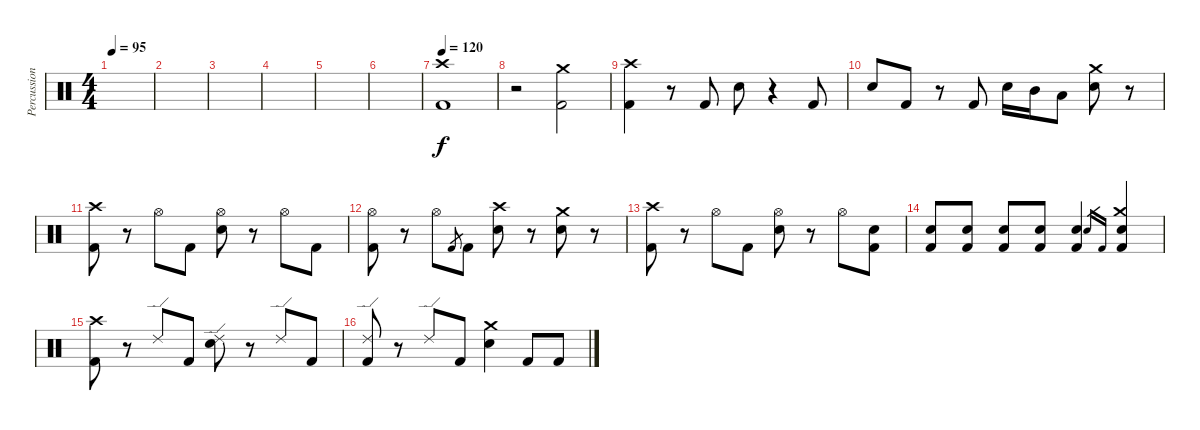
\track ("Percussion" "Percussion") {instrument percussion}
\staff {score}
\articulation defaults
\ts (4 4)
\tempo 95
\clef neutral
\ks c
|
|
|
|
|
|
\tempo 120
("Crash high (hit)" "Kick (hit) 2").1 |
r.2 ("Crash medium (hit)" "Kick (hit) 2").2 |
("Crash high (hit)" "Kick (hit) 2").4 r.8 "Kick (hit) 2".8 "Snare (hit) 2".8 r.4 "Kick (hit) 2".8 |
"Snare (hit) 2".8 "Kick (hit) 2".8 r.8 "Kick (hit) 2".8 "Snare (hit) 2".16 "Mid Tom (hit)".16 "Low Tom (hit)".8 ("Crash medium (hit)" "Snare (hit) 2").8 r.8 |
("Crash high (hit)" "Kick (hit) 2").8 r.8 "Hi-Hat (open)".8 "Kick (hit) 2".8 ("Hi-Hat (open)" "Snare (hit) 2").8 r.8 "Hi-Hat (open)".8 "Kick (hit) 2".8 |
("Hi-Hat (open)" "Kick (hit) 2").8 r.8 "Hi-Hat (open)".8 "Kick (hit) 2".8{gr} "Kick (hit) 2".8 ("Crash high (hit)" "Snare (hit) 2").8 r.8 ("Crash medium (hit)" "Snare (hit) 2").8 r.8 |
("Crash high (hit)" "Kick (hit) 2").8 r.8 "Hi-Hat (open)".8 "Kick (hit) 2".8 ("Hi-Hat (open)" "Snare (hit) 2").8 r.8 "Hi-Hat (open)".8 ("Snare (hit) 2" "Kick (hit) 2").8 |
("Snare (hit) 2" "Kick (hit) 2").8 ("Snare (hit) 2" "Kick (hit) 2").8 ("Snare (hit) 2" "Kick (hit) 2").8 ("Snare (hit) 2" "Kick (hit) 2").8 ("Snare (hit) 2" "Kick (hit) 2").4 "Snare (hit) 2".16{gr} "Kick (hit) 2".16{gr} ("Crash medium (hit)" "Snare (hit) 2" "Kick (hit) 2").4 |
("Crash high (hit)" "Kick (hit) 2").8 r.8 "Ride (edge) 2".8 "Kick (hit) 2".8 ("Ride (edge) 2" "Snare (hit) 2").8 r.8 "Ride (edge) 2".8 "Kick (hit) 2".8 |
("Ride (edge) 2" "Kick (hit) 2").8 r.8 "Ride (edge) 2".8 "Kick (hit) 2".8 ("Crash medium (hit)" "Snare (hit) 2").4 "Kick (hit) 2".8 "Kick (hit) 2".8
